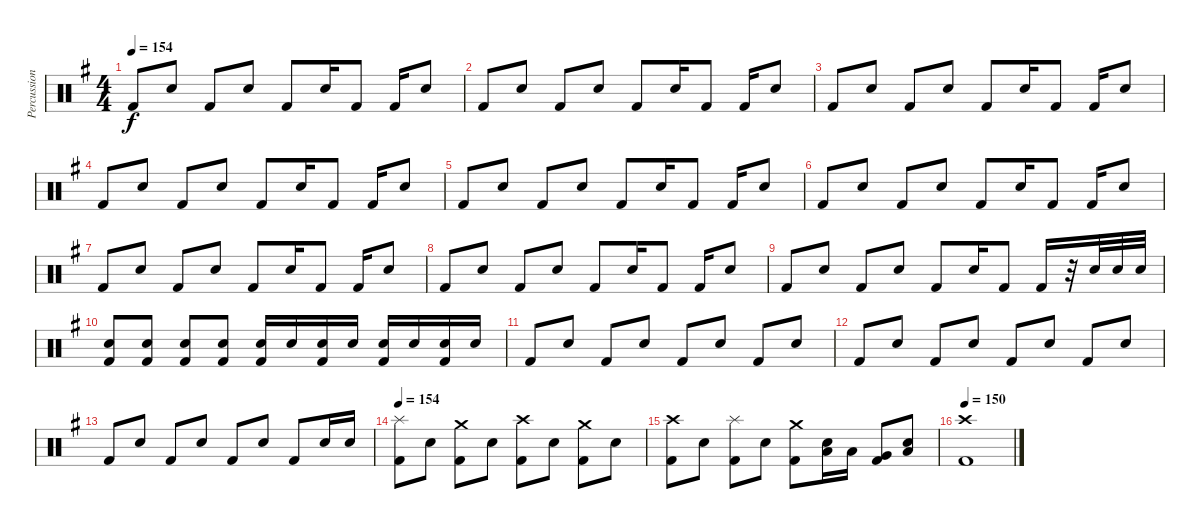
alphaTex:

\track ("Percussion" "Percussion") {instrument percussion}
\staff {score}
\articulation defaults
\ts (4 4)
\tempo 154
\clef neutral
\ks eminor "Kick (hit) 2".8{dy f} "Electric Snare (hit)".8 "Kick (hit) 2".8 "Electric Snare (hit)".8 "Kick (hit) 2".8 "Electric Snare (hit)".16 "Kick (hit) 2".8 "Kick (hit) 2".16 "Electric Snare (hit)".8
|
"Kick (hit) 2".8 "Electric Snare (hit)".8 "Kick (hit) 2".8 "Electric Snare (hit)".8 "Kick (hit) 2".8 "Electric Snare (hit)".16 "Kick (hit) 2".8 "Kick (hit) 2".16 "Electric Snare (hit)".8 |
"Kick (hit) 2".8 "Electric Snare (hit)".8 "Kick (hit) 2".8 "Electric Snare (hit)".8 "Kick (hit) 2".8 "Electric Snare (hit)".16 "Kick (hit) 2".8 "Kick (hit) 2".16 "Electric Snare (hit)".8 |
"Kick (hit) 2".8 "Electric Snare (hit)".8 "Kick (hit) 2".8 "Electric Snare (hit)".8 "Kick (hit) 2".8 "Electric Snare (hit)".16 "Kick (hit) 2".8 "Kick (hit) 2".16 "Electric Snare (hit)".8 |
"Kick (hit) 2".8 "Electric Snare (hit)".8 "Kick (hit) 2".8 "Electric Snare (hit)".8 "Kick (hit) 2".8 "Electric Snare (hit)".16 "Kick (hit) 2".8 "Kick (hit) 2".16 "Electric Snare (hit)".8 |
"Kick (hit) 2".8 "Electric Snare (hit)".8 "Kick (hit) 2".8 "Electric Snare (hit)".8 "Kick (hit) 2".8 "Electric Snare (hit)".16 "Kick (hit) 2".8 "Kick (hit) 2".16 "Electric Snare (hit)".8 |
"Kick (hit) 2".8 "Electric Snare (hit)".8 "Kick (hit) 2".8 "Electric Snare (hit)".8 "Kick (hit) 2".8 "Electric Snare (hit)".16 "Kick (hit) 2".8 "Kick (hit) 2".16 "Electric Snare (hit)".8 |
"Kick (hit) 2".8 "Electric Snare (hit)".8 "Kick (hit) 2".8 "Electric Snare (hit)".8 "Kick (hit) 2".8 "Electric Snare (hit)".16 "Kick (hit) 2".8 "Kick (hit) 2".16 "Electric Snare (hit)".8 |
"Kick (hit) 2".8 "Electric Snare (hit)".8 "Kick (hit) 2".8 "Electric Snare (hit)".8 "Kick (hit) 2".8 "Electric Snare (hit)".16 "Kick (hit) 2".8 "Kick (hit) 2".16 r.32 "Electric Snare (hit)".32 "Electric Snare (hit)".32 "Electric Snare (hit)".32 |
("Kick (hit) 2" "Electric Snare (hit)").8 ("Kick (hit) 2" "Electric Snare (hit)").8 ("Kick (hit) 2" "Electric Snare (hit)").8 ("Kick (hit) 2" "Electric Snare (hit)").8 ("Kick (hit) 2" "Electric Snare (hit)").16 "Electric Snare (hit)".16 ("Kick (hit) 2" "Electric Snare (hit)").16 "Electric Snare (hit)".16 ("Kick (hit) 2" "Electric Snare (hit)").16 "Electric Snare (hit)".16 ("Kick (hit) 2" "Electric Snare (hit)").16 "Electric Snare (hit)".16 |
"Kick (hit) 2".8 "Electric Snare (hit)".8 "Kick (hit) 2".8 "Electric Snare (hit)".8 "Kick (hit) 2".8 "Electric Snare (hit)".8 "Kick (hit) 2".8 "Electric Snare (hit)".8 |
"Kick (hit) 2".8 "Electric Snare (hit)".8 "Kick (hit) 2".8 "Electric Snare (hit)".8 "Kick (hit) 2".8 "Electric Snare (hit)".8 "Kick (hit) 2".8 "Electric Snare (hit)".8 |
"Kick (hit) 2".8 "Electric Snare (hit)".8 "Kick (hit) 2".8 "Electric Snare (hit)".8 "Kick (hit) 2".8 "Electric Snare (hit)".8 "Kick (hit) 2".8 "Electric Snare (hit)".16 "Electric Snare (hit)".16 |
\tempo 154
("Kick (hit) 2" "Splash (hit)").8 "Electric Snare (hit)".8 ("Kick (hit) 2" "Crash medium (hit)").8 "Electric Snare (hit)".8 ("Kick (hit) 2" "Crash high (hit)").8 "Electric Snare (hit)".8 ("Kick (hit) 2" "Crash medium (hit)").8 "Electric Snare (hit)".8 |
("Kick (hit) 2" "Crash high (hit)").8 "Electric Snare (hit)".8 ("Kick (hit) 2" "Splash (hit)").8 "Electric Snare (hit)".8 ("Kick (hit) 2" "Crash medium (hit)").8 ("Electric Snare (hit)" "Low Floor Tom (hit)").16 "Low Floor Tom (hit)".16 ("Kick (hit) 2" "Very Low Tom (hit)").8 ("Electric Snare (hit)" "Low Floor Tom (hit)").8 |
\tempo 150
("Kick (hit) 2" "Crash high (hit)").1
